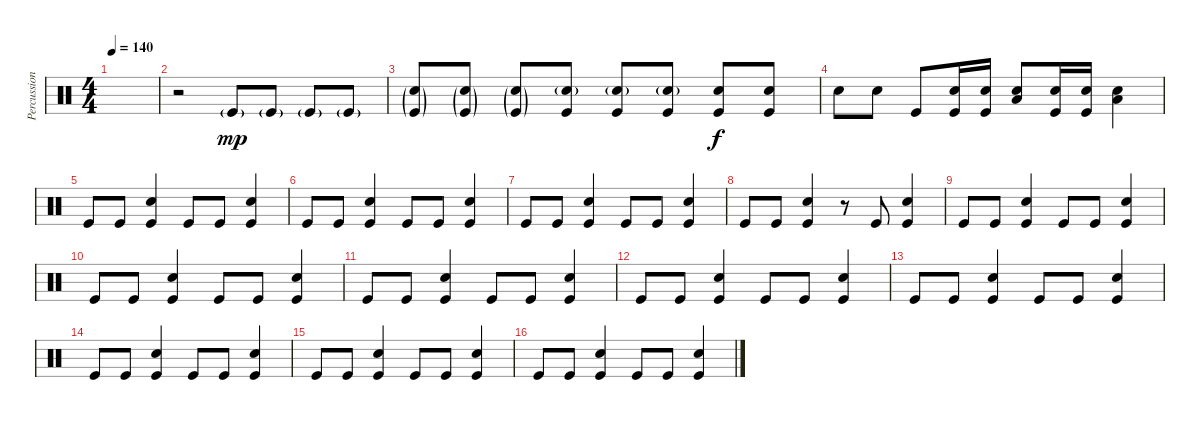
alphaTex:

\track ("Percussions" "Percussion") {instrument percussion}
\staff {score}
\articulation defaults
\ts (4 4)
\tempo 140
\clef neutral
\ks c
|
r.2 "Kick (hit)"{g}.8{dy mp} "Kick (hit)"{g}.8 "Kick (hit)"{g}.8 "Kick (hit)"{g}.8 |
("Electric Snare (hit)"{g} "Kick (hit)"{g}).8 ("Electric Snare (hit)"{g} "Kick (hit)"{g}).8 ("Electric Snare (hit)"{g} "Kick (hit)"{g}).8 ("Electric Snare (hit)"{g} "Kick (hit)").8 ("Electric Snare (hit)"{g} "Kick (hit)").8 ("Electric Snare (hit)"{g} "Kick (hit)").8 ("Electric Snare (hit)" "Kick (hit)").8{dy f} ("Electric Snare (hit)" "Kick (hit)").8 |
"Electric Snare (hit)".8 "Electric Snare (hit)".8 "Kick (hit)".8 ("Electric Snare (hit)" "Kick (hit)").16 ("Electric Snare (hit)" "Kick (hit)").16 ("Electric Snare (hit)" "Low Tom (hit)").8 ("Electric Snare (hit)" "Kick (hit)").16 ("Electric Snare (hit)" "Kick (hit)").16 ("Electric Snare (hit)" "Low Tom (hit)").4 |
"Kick (hit)".8 "Kick (hit)".8 ("Kick (hit)" "Electric Snare (hit)").4 "Kick (hit)".8 "Kick (hit)".8 ("Kick (hit)" "Electric Snare (hit)").4 |
"Kick (hit)".8 "Kick (hit)".8 ("Kick (hit)" "Electric Snare (hit)").4 "Kick (hit)".8 "Kick (hit)".8 ("Kick (hit)" "Electric Snare (hit)").4 |
"Kick (hit)".8 "Kick (hit)".8 ("Kick (hit)" "Electric Snare (hit)").4 "Kick (hit)".8 "Kick (hit)".8 ("Kick (hit)" "Electric Snare (hit)").4 |
"Kick (hit)".8 "Kick (hit)".8 ("Kick (hit)" "Electric Snare (hit)").4 r.8 "Kick (hit)".8 ("Kick (hit)" "Electric Snare (hit)").4 |
"Kick (hit)".8 "Kick (hit)".8 ("Kick (hit)" "Electric Snare (hit)").4 "Kick (hit)".8 "Kick (hit)".8 ("Kick (hit)" "Electric Snare (hit)").4 |
"Kick (hit)".8 "Kick (hit)".8 ("Kick (hit)" "Electric Snare (hit)").4 "Kick (hit)".8 "Kick (hit)".8 ("Kick (hit)" "Electric Snare (hit)").4 |
"Kick (hit)".8 "Kick (hit)".8 ("Kick (hit)" "Electric Snare (hit)").4 "Kick (hit)".8 "Kick (hit)".8 ("Kick (hit)" "Electric Snare (hit)").4 |
"Kick (hit)".8 "Kick (hit)".8 ("Kick (hit)" "Electric Snare (hit)").4 "Kick (hit)".8 "Kick (hit)".8 ("Kick (hit)" "Electric Snare (hit)").4 |
"Kick (hit)".8 "Kick (hit)".8 ("Kick (hit)" "Electric Snare (hit)").4 "Kick (hit)".8 "Kick (hit)".8 ("Kick (hit)" "Electric Snare (hit)").4 |
"Kick (hit)".8 "Kick (hit)".8 ("Kick (hit)" "Electric Snare (hit)").4 "Kick (hit)".8 "Kick (hit)".8 ("Kick (hit)" "Electric Snare (hit)").4 |
"Kick (hit)".8 "Kick (hit)".8 ("Kick (hit)" "Electric Snare (hit)").4 "Kick (hit)".8 "Kick (hit)".8 ("Kick (hit)" "Electric Snare (hit)").4 |
"Kick (hit)".8 "Kick (hit)".8 ("Kick (hit)" "Electric Snare (hit)").4 "Kick (hit)".8 "Kick (hit)".8 ("Kick (hit)" "Electric Snare (hit)").4
